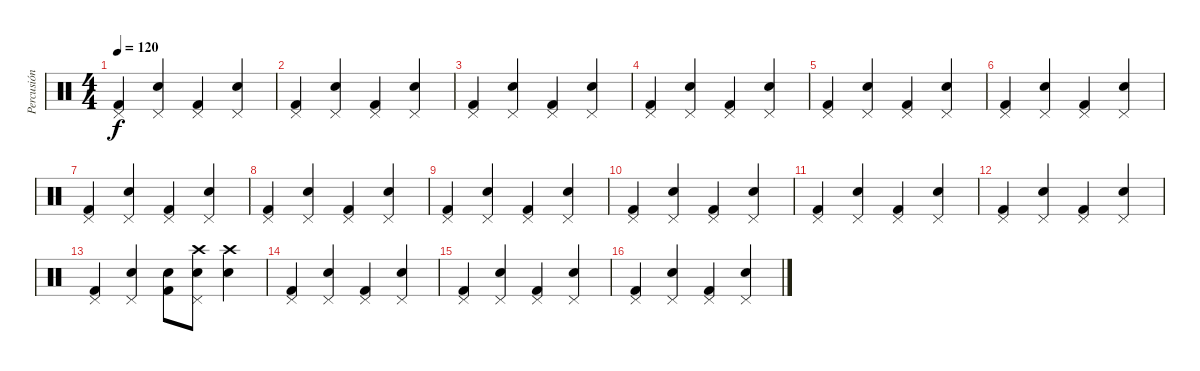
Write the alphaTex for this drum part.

\track ("Percusión" "Percusión") {instrument percussion}
\staff {score}
\articulation defaults
\ts (4 4)
\tempo 120
\clef neutral
\ks c
("Pedal Hi-Hat (hit)" "Kick (hit) 2").4{dy f} ("Pedal Hi-Hat (hit)" "Electric Snare (hit)").4 ("Pedal Hi-Hat (hit)" "Kick (hit) 2").4 ("Pedal Hi-Hat (hit)" "Electric Snare (hit)").4 |
("Pedal Hi-Hat (hit)" "Kick (hit) 2").4 ("Pedal Hi-Hat (hit)" "Electric Snare (hit)").4 ("Pedal Hi-Hat (hit)" "Kick (hit) 2").4 ("Pedal Hi-Hat (hit)" "Electric Snare (hit)").4 |
("Pedal Hi-Hat (hit)" "Kick (hit) 2").4 ("Pedal Hi-Hat (hit)" "Electric Snare (hit)").4 ("Pedal Hi-Hat (hit)" "Kick (hit) 2").4 ("Pedal Hi-Hat (hit)" "Electric Snare (hit)").4 |
("Pedal Hi-Hat (hit)" "Kick (hit) 2").4 ("Pedal Hi-Hat (hit)" "Electric Snare (hit)").4 ("Pedal Hi-Hat (hit)" "Kick (hit) 2").4 ("Pedal Hi-Hat (hit)" "Electric Snare (hit)").4 |
("Pedal Hi-Hat (hit)" "Kick (hit) 2").4 ("Pedal Hi-Hat (hit)" "Electric Snare (hit)").4 ("Pedal Hi-Hat (hit)" "Kick (hit) 2").4 ("Pedal Hi-Hat (hit)" "Electric Snare (hit)").4 |
("Pedal Hi-Hat (hit)" "Kick (hit) 2").4 ("Pedal Hi-Hat (hit)" "Electric Snare (hit)").4 ("Pedal Hi-Hat (hit)" "Kick (hit) 2").4 ("Pedal Hi-Hat (hit)" "Electric Snare (hit)").4 |
("Pedal Hi-Hat (hit)" "Kick (hit) 2").4 ("Pedal Hi-Hat (hit)" "Electric Snare (hit)").4 ("Pedal Hi-Hat (hit)" "Kick (hit) 2").4 ("Pedal Hi-Hat (hit)" "Electric Snare (hit)").4 |
("Pedal Hi-Hat (hit)" "Kick (hit) 2").4 ("Pedal Hi-Hat (hit)" "Electric Snare (hit)").4 ("Pedal Hi-Hat (hit)" "Kick (hit) 2").4 ("Pedal Hi-Hat (hit)" "Electric Snare (hit)").4 |
("Pedal Hi-Hat (hit)" "Kick (hit) 2").4 ("Pedal Hi-Hat (hit)" "Electric Snare (hit)").4 ("Pedal Hi-Hat (hit)" "Kick (hit) 2").4 ("Pedal Hi-Hat (hit)" "Electric Snare (hit)").4 |
("Pedal Hi-Hat (hit)" "Kick (hit) 2").4 ("Pedal Hi-Hat (hit)" "Electric Snare (hit)").4 ("Pedal Hi-Hat (hit)" "Kick (hit) 2").4 ("Pedal Hi-Hat (hit)" "Electric Snare (hit)").4 |
("Pedal Hi-Hat (hit)" "Kick (hit) 2").4 ("Pedal Hi-Hat (hit)" "Electric Snare (hit)").4 ("Pedal Hi-Hat (hit)" "Kick (hit) 2").4 ("Pedal Hi-Hat (hit)" "Electric Snare (hit)").4 |
("Pedal Hi-Hat (hit)" "Kick (hit) 2").4 ("Pedal Hi-Hat (hit)" "Electric Snare (hit)").4 ("Pedal Hi-Hat (hit)" "Kick (hit) 2").4 ("Pedal Hi-Hat (hit)" "Electric Snare (hit)").4 |
("Pedal Hi-Hat (hit)" "Kick (hit) 2").4 ("Pedal Hi-Hat (hit)" "Electric Snare (hit)").4 ("Electric Snare (hit)" "Kick (hit) 2").8 ("Crash high (hit)" "Pedal Hi-Hat (hit)" "Electric Snare (hit)").8 ("Crash high (hit)" "Electric Snare (hit)").4 |
("Pedal Hi-Hat (hit)" "Kick (hit) 2").4 ("Pedal Hi-Hat (hit)" "Electric Snare (hit)").4 ("Pedal Hi-Hat (hit)" "Kick (hit) 2").4 ("Pedal Hi-Hat (hit)" "Electric Snare (hit)").4 |
("Pedal Hi-Hat (hit)" "Kick (hit) 2").4 ("Pedal Hi-Hat (hit)" "Electric Snare (hit)").4 ("Pedal Hi-Hat (hit)" "Kick (hit) 2").4 ("Pedal Hi-Hat (hit)" "Electric Snare (hit)").4 |
("Pedal Hi-Hat (hit)" "Kick (hit) 2").4 ("Pedal Hi-Hat (hit)" "Electric Snare (hit)").4 ("Pedal Hi-Hat (hit)" "Kick (hit) 2").4 ("Pedal Hi-Hat (hit)" "Electric Snare (hit)").4
